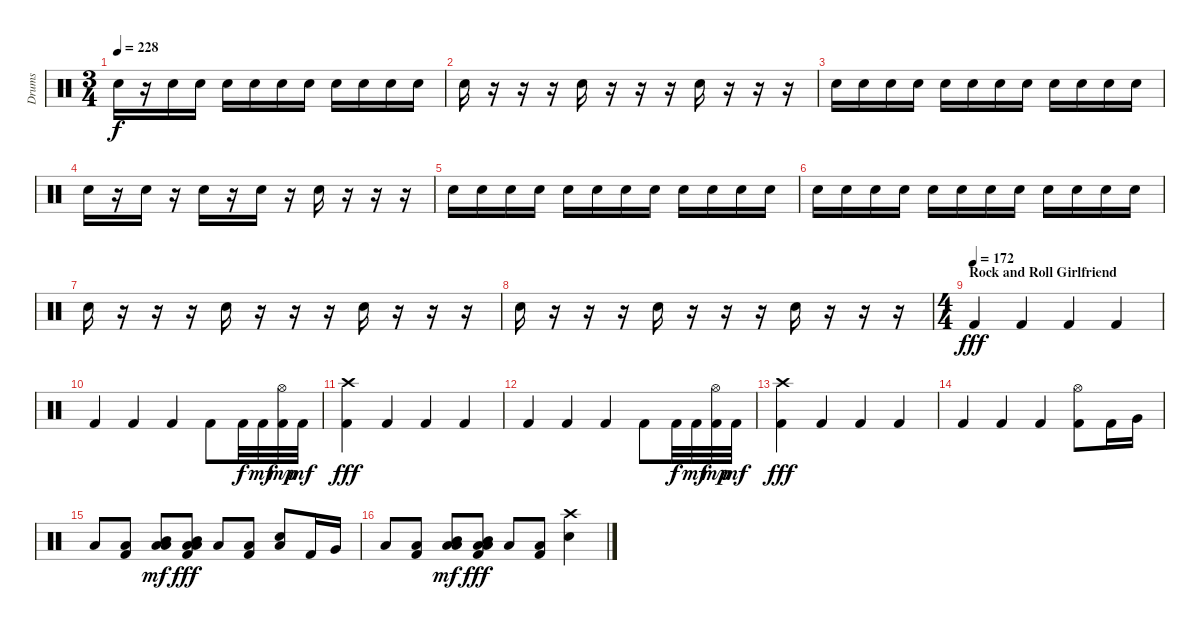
\track ("Drums" "Drums") {instrument percussion}
\staff {score}
\articulation defaults
\ts (3 4)
\tempo 228
\clef neutral
\ks c "Snare (hit) 2".16{dy f}
r.16 "Snare (hit) 2".16 "Snare (hit) 2".16 "Snare (hit) 2".16 "Snare (hit) 2".16 "Snare (hit) 2".16 "Snare (hit) 2".16 "Snare (hit) 2".16 "Snare (hit) 2".16 "Snare (hit) 2".16 "Snare (hit) 2".16 |
"Snare (hit) 2".16 r.16 r.16 r.16 "Snare (hit) 2".16 r.16 r.16 r.16 "Snare (hit) 2".16 r.16 r.16 r.16 |
"Snare (hit) 2".16 "Snare (hit) 2".16 "Snare (hit) 2".16 "Snare (hit) 2".16 "Snare (hit) 2".16 "Snare (hit) 2".16 "Snare (hit) 2".16 "Snare (hit) 2".16 "Snare (hit) 2".16 "Snare (hit) 2".16 "Snare (hit) 2".16 "Snare (hit) 2".16 |
"Snare (hit) 2".16 r.16 "Snare (hit) 2".16 r.16 "Snare (hit) 2".16 r.16 "Snare (hit) 2".16 r.16 "Snare (hit) 2".16 r.16 r.16 r.16 |
"Snare (hit) 2".16 "Snare (hit) 2".16 "Snare (hit) 2".16 "Snare (hit) 2".16 "Snare (hit) 2".16 "Snare (hit) 2".16 "Snare (hit) 2".16 "Snare (hit) 2".16 "Snare (hit) 2".16 "Snare (hit) 2".16 "Snare (hit) 2".16 "Snare (hit) 2".16 |
"Snare (hit) 2".16 "Snare (hit) 2".16 "Snare (hit) 2".16 "Snare (hit) 2".16 "Snare (hit) 2".16 "Snare (hit) 2".16 "Snare (hit) 2".16 "Snare (hit) 2".16 "Snare (hit) 2".16 "Snare (hit) 2".16 "Snare (hit) 2".16 "Snare (hit) 2".16 |
"Snare (hit) 2".16 r.16 r.16 r.16 "Snare (hit) 2".16 r.16 r.16 r.16 "Snare (hit) 2".16 r.16 r.16 r.16 |
"Snare (hit) 2".16 r.16 r.16 r.16 "Snare (hit) 2".16 r.16 r.16 r.16 "Snare (hit) 2".16 r.16 r.16 r.16 |
\ts (4 4)
\section ("" "Rock and Roll Girlfriend")
\tempo (172)
"Kick (hit) 2".4{dy fff volume 13} "Kick (hit) 2".4 "Kick (hit) 2".4 "Kick (hit) 2".4 |
"Kick (hit) 2".4 "Kick (hit) 2".4 "Kick (hit) 2".4 "Kick (hit) 2".8 "Kick (hit) 2".32{dy f} "Kick (hit) 2".32{dy mf} ("Kick (hit) 2" "Hi-Hat (open)").32{dy mp} "Kick (hit) 2".32{dy mf} |
("Kick (hit) 2" "Crash high (hit)").4{dy fff} "Kick (hit) 2".4 "Kick (hit) 2".4 "Kick (hit) 2".4 |
"Kick (hit) 2".4 "Kick (hit) 2".4 "Kick (hit) 2".4 "Kick (hit) 2".8 "Kick (hit) 2".32{dy f} "Kick (hit) 2".32{dy mf} ("Kick (hit) 2" "Hi-Hat (open)").32{dy mp} "Kick (hit) 2".32{dy mf} |
("Kick (hit) 2" "Crash high (hit)").4{dy fff} "Kick (hit) 2".4 "Kick (hit) 2".4 "Kick (hit) 2".4 |
"Kick (hit) 2".4 "Kick (hit) 2".4 "Kick (hit) 2".4 ("Kick (hit) 2" "Hi-Hat (open)").8 "Kick (hit) 2".16 "Very Low Tom (hit)".16 |
"Low Floor Tom (hit)".8 ("Low Floor Tom (hit)" "Kick (hit) 2").8 ("Mid Tom (hit)" "Low Floor Tom (hit)" "Low Tom (hit)").8{dy mf} ("Mid Tom (hit)" "Low Floor Tom (hit)" "Kick (hit) 2" "Low Tom (hit)").8{dy fff} "Low Floor Tom (hit)".8 ("Low Floor Tom (hit)" "Kick (hit) 2").8 ("Electric Snare (hit)" "Low Floor Tom (hit)").8 "Kick (hit) 2".16 "Very Low Tom (hit)".16 |
"Low Floor Tom (hit)".8 ("Low Floor Tom (hit)" "Kick (hit) 2").8 ("Mid Tom (hit)" "Low Floor Tom (hit)" "Low Tom (hit)").8{dy mf} ("Mid Tom (hit)" "Low Floor Tom (hit)" "Kick (hit) 2" "Low Tom (hit)").8{dy fff} "Low Floor Tom (hit)".8 ("Low Floor Tom (hit)" "Kick (hit) 2").8 ("Electric Snare (hit)" "Crash high (hit)").4
